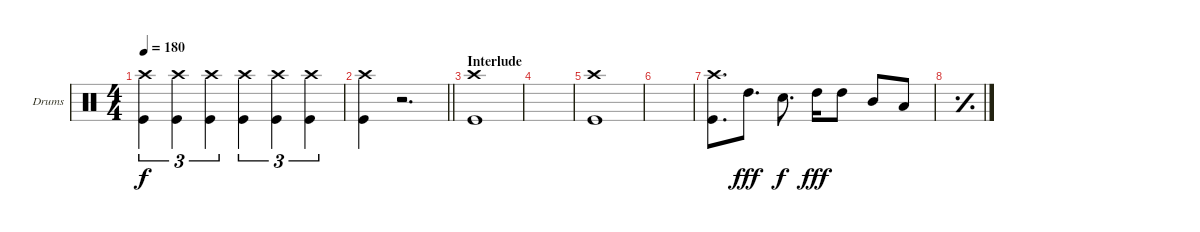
\bracketExtendMode groupsimilarinstruments
\firstSystemTrackNameOrientation horizontal
\otherSystemsTrackNameOrientation horizontal
\track ("Drums" "Drums") {instrument percussion}
\staff {score}
\articulation defaults
\ts (4 4)
\tempo 180
\clef neutral
\ks c
("Crash high (hit)" "Kick (hit)").4{tu (3 2) dy f} ("Crash high (hit)" "Kick (hit)").4{tu (3 2)} ("Crash high (hit)" "Kick (hit)").4{tu (3 2)} ("Crash high (hit)" "Kick (hit)").4{tu (3 2)} ("Crash high (hit)" "Kick (hit)").4{tu (3 2)} ("Crash high (hit)" "Kick (hit)").4{tu (3 2)} |
\barLineRight lightlight
("Crash high (hit)" "Kick (hit)").4 r.2{d} |
\section ("" "Interlude")
("Crash high (hit)" "Kick (hit)").1 |
|
("Crash high (hit)" "Kick (hit)").1 |
|
("Crash high (hit)" "Kick (hit)").8{d} "High Tom (hit)".8{d dy fff} "Snare (hit) 2".8{d dy f} "High Tom (hit)".16{dy fff} "High Tom (hit)".8 "Mid Tom (hit)".8 "Low Tom (hit)".8 |
\simile simple
